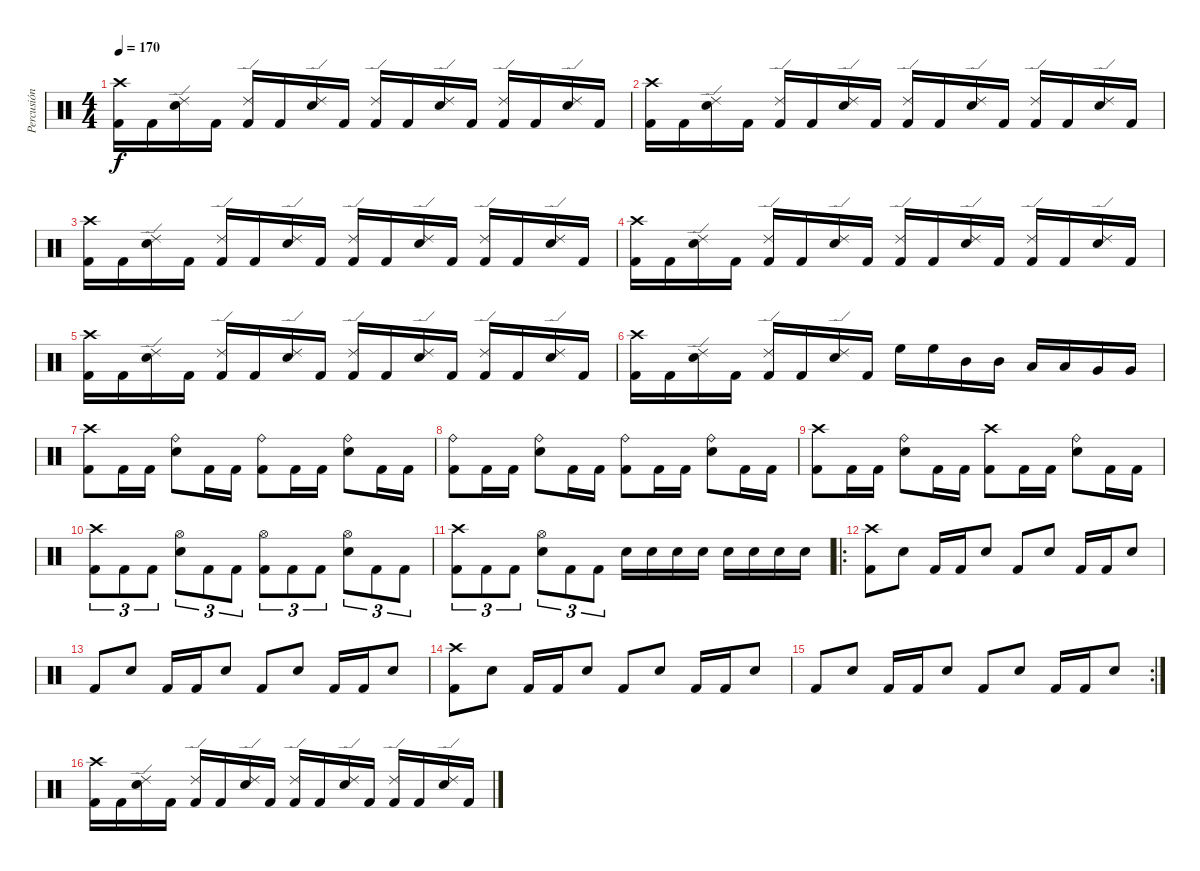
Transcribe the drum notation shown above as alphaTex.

\track ("Percusión" "Percusión") {instrument percussion}
\staff {score}
\articulation defaults
\ts (4 4)
\tempo 170
\clef neutral
\ks c
("Crash high (hit)" "Kick (hit) 2").16{dy f} "Kick (hit) 2".16 ("Ride (edge) 2" "Electric Snare (hit)").16 "Kick (hit) 2".16 ("Ride (edge) 2" "Kick (hit) 2").16 "Kick (hit) 2".16 ("Ride (edge) 2" "Electric Snare (hit)").16 "Kick (hit) 2".16 ("Ride (edge) 2" "Kick (hit) 2").16 "Kick (hit) 2".16 ("Ride (edge) 2" "Electric Snare (hit)").16 "Kick (hit) 2".16 ("Ride (edge) 2" "Kick (hit) 2").16 "Kick (hit) 2".16 ("Ride (edge) 2" "Electric Snare (hit)").16 "Kick (hit) 2".16 |
("Crash high (hit)" "Kick (hit) 2").16 "Kick (hit) 2".16 ("Ride (edge) 2" "Electric Snare (hit)").16 "Kick (hit) 2".16 ("Ride (edge) 2" "Kick (hit) 2").16 "Kick (hit) 2".16 ("Ride (edge) 2" "Electric Snare (hit)").16 "Kick (hit) 2".16 ("Ride (edge) 2" "Kick (hit) 2").16 "Kick (hit) 2".16 ("Ride (edge) 2" "Electric Snare (hit)").16 "Kick (hit) 2".16 ("Ride (edge) 2" "Kick (hit) 2").16 "Kick (hit) 2".16 ("Ride (edge) 2" "Electric Snare (hit)").16 "Kick (hit) 2".16 |
("Crash high (hit)" "Kick (hit) 2").16 "Kick (hit) 2".16 ("Ride (edge) 2" "Electric Snare (hit)").16 "Kick (hit) 2".16 ("Ride (edge) 2" "Kick (hit) 2").16 "Kick (hit) 2".16 ("Ride (edge) 2" "Electric Snare (hit)").16 "Kick (hit) 2".16 ("Ride (edge) 2" "Kick (hit) 2").16 "Kick (hit) 2".16 ("Ride (edge) 2" "Electric Snare (hit)").16 "Kick (hit) 2".16 ("Ride (edge) 2" "Kick (hit) 2").16 "Kick (hit) 2".16 ("Ride (edge) 2" "Electric Snare (hit)").16 "Kick (hit) 2".16 |
("Crash high (hit)" "Kick (hit) 2").16 "Kick (hit) 2".16 ("Ride (edge) 2" "Electric Snare (hit)").16 "Kick (hit) 2".16 ("Ride (edge) 2" "Kick (hit) 2").16 "Kick (hit) 2".16 ("Ride (edge) 2" "Electric Snare (hit)").16 "Kick (hit) 2".16 ("Ride (edge) 2" "Kick (hit) 2").16 "Kick (hit) 2".16 ("Ride (edge) 2" "Electric Snare (hit)").16 "Kick (hit) 2".16 ("Ride (edge) 2" "Kick (hit) 2").16 "Kick (hit) 2".16 ("Ride (edge) 2" "Electric Snare (hit)").16 "Kick (hit) 2".16 |
("Crash high (hit)" "Kick (hit) 2").16 "Kick (hit) 2".16 ("Ride (edge) 2" "Electric Snare (hit)").16 "Kick (hit) 2".16 ("Ride (edge) 2" "Kick (hit) 2").16 "Kick (hit) 2".16 ("Ride (edge) 2" "Electric Snare (hit)").16 "Kick (hit) 2".16 ("Ride (edge) 2" "Kick (hit) 2").16 "Kick (hit) 2".16 ("Ride (edge) 2" "Electric Snare (hit)").16 "Kick (hit) 2".16 ("Ride (edge) 2" "Kick (hit) 2").16 "Kick (hit) 2".16 ("Ride (edge) 2" "Electric Snare (hit)").16 "Kick (hit) 2".16 |
("Crash high (hit)" "Kick (hit) 2").16 "Kick (hit) 2".16 ("Ride (edge) 2" "Electric Snare (hit)").16 "Kick (hit) 2".16 ("Ride (edge) 2" "Kick (hit) 2").16 "Kick (hit) 2".16 ("Ride (edge) 2" "Electric Snare (hit)").16 "Kick (hit) 2".16 "High Floor Tom (hit)".16 "High Floor Tom (hit)".16 "Mid Tom (hit)".16 "Mid Tom (hit)".16 "Low Tom (hit)".16 "Low Tom (hit)".16 "Very Low Tom (hit)".16 "Very Low Tom (hit)".16 |
("Crash high (hit)" "Kick (hit) 2").8 "Kick (hit) 2".16 "Kick (hit) 2".16 ("Ride (bell)" "Electric Snare (hit)").8 "Kick (hit) 2".16 "Kick (hit) 2".16 ("Ride (bell)" "Kick (hit) 2").8 "Kick (hit) 2".16 "Kick (hit) 2".16 ("Ride (bell)" "Electric Snare (hit)").8 "Kick (hit) 2".16 "Kick (hit) 2".16 |
("Ride (bell)" "Kick (hit) 2").8 "Kick (hit) 2".16 "Kick (hit) 2".16 ("Ride (bell)" "Electric Snare (hit)").8 "Kick (hit) 2".16 "Kick (hit) 2".16 ("Ride (bell)" "Kick (hit) 2").8 "Kick (hit) 2".16 "Kick (hit) 2".16 ("Ride (bell)" "Electric Snare (hit)").8 "Kick (hit) 2".16 "Kick (hit) 2".16 |
("Crash high (hit)" "Kick (hit) 2").8 "Kick (hit) 2".16 "Kick (hit) 2".16 ("Ride (bell)" "Electric Snare (hit)").8 "Kick (hit) 2".16 "Kick (hit) 2".16 ("Crash high (hit)" "Kick (hit) 2").8 "Kick (hit) 2".16 "Kick (hit) 2".16 ("Ride (bell)" "Electric Snare (hit)").8 "Kick (hit) 2".16 "Kick (hit) 2".16 |
("Crash high (hit)" "Kick (hit) 2").8{tu (3 2)} "Kick (hit) 2".8{tu (3 2)} "Kick (hit) 2".8{tu (3 2)} ("Hi-Hat (open)" "Electric Snare (hit)").8{tu (3 2)} "Kick (hit) 2".8{tu (3 2)} "Kick (hit) 2".8{tu (3 2)} ("Hi-Hat (open)" "Kick (hit) 2").8{tu (3 2)} "Kick (hit) 2".8{tu (3 2)} "Kick (hit) 2".8{tu (3 2)} ("Hi-Hat (open)" "Electric Snare (hit)").8{tu (3 2)} "Kick (hit) 2".8{tu (3 2)} "Kick (hit) 2".8{tu (3 2)} |
("Crash high (hit)" "Kick (hit) 2").8{tu (3 2)} "Kick (hit) 2".8{tu (3 2)} "Kick (hit) 2".8{tu (3 2)} ("Hi-Hat (open)" "Electric Snare (hit)").8{tu (3 2)} "Kick (hit) 2".8{tu (3 2)} "Kick (hit) 2".8{tu (3 2)} "Electric Snare (hit)".16 "Electric Snare (hit)".16 "Electric Snare (hit)".16 "Electric Snare (hit)".16 "Electric Snare (hit)".16 "Electric Snare (hit)".16 "Electric Snare (hit)".16 "Electric Snare (hit)".16 |
\ro
("Crash high (hit)" "Kick (hit) 2").8 "Electric Snare (hit)".8 "Kick (hit) 2".16 "Kick (hit) 2".16 "Electric Snare (hit)".8 "Kick (hit) 2".8 "Electric Snare (hit)".8 "Kick (hit) 2".16 "Kick (hit) 2".16 "Electric Snare (hit)".8 |
"Kick (hit) 2".8 "Electric Snare (hit)".8 "Kick (hit) 2".16 "Kick (hit) 2".16 "Electric Snare (hit)".8 "Kick (hit) 2".8 "Electric Snare (hit)".8 "Kick (hit) 2".16 "Kick (hit) 2".16 "Electric Snare (hit)".8 |
("Crash high (hit)" "Kick (hit) 2").8 "Electric Snare (hit)".8 "Kick (hit) 2".16 "Kick (hit) 2".16 "Electric Snare (hit)".8 "Kick (hit) 2".8 "Electric Snare (hit)".8 "Kick (hit) 2".16 "Kick (hit) 2".16 "Electric Snare (hit)".8 |
\rc 2 "Kick (hit) 2".8 "Electric Snare (hit)".8 "Kick (hit) 2".16 "Kick (hit) 2".16 "Electric Snare (hit)".8 "Kick (hit) 2".8 "Electric Snare (hit)".8 "Kick (hit) 2".16 "Kick (hit) 2".16 "Electric Snare (hit)".8
|
("Crash high (hit)" "Kick (hit) 2").16 "Kick (hit) 2".16 ("Ride (edge) 2" "Electric Snare (hit)").16 "Kick (hit) 2".16 ("Ride (edge) 2" "Kick (hit) 2").16 "Kick (hit) 2".16 ("Ride (edge) 2" "Electric Snare (hit)").16 "Kick (hit) 2".16 ("Ride (edge) 2" "Kick (hit) 2").16 "Kick (hit) 2".16 ("Ride (edge) 2" "Electric Snare (hit)").16 "Kick (hit) 2".16 ("Ride (edge) 2" "Kick (hit) 2").16 "Kick (hit) 2".16 ("Ride (edge) 2" "Electric Snare (hit)").16 "Kick (hit) 2".16
